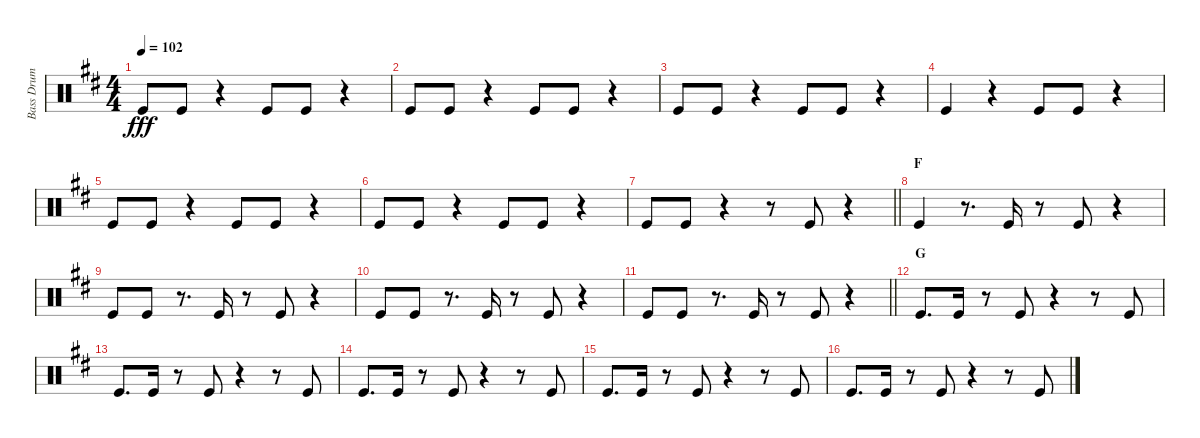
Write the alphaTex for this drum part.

\track ("Bass Drum" "Bass Drum") {instrument percussion}
\staff {score}
\articulation defaults
\ts (4 4)
\tempo 102
\clef neutral
\ks d "Kick (hit)".8{dy fff} "Kick (hit)".8
r.4 "Kick (hit)".8 "Kick (hit)".8 r.4 |
"Kick (hit)".8 "Kick (hit)".8 r.4 "Kick (hit)".8 "Kick (hit)".8 r.4 |
"Kick (hit)".8 "Kick (hit)".8 r.4 "Kick (hit)".8 "Kick (hit)".8 r.4 |
"Kick (hit)".4 r.4 "Kick (hit)".8 "Kick (hit)".8 r.4 |
"Kick (hit)".8 "Kick (hit)".8 r.4 "Kick (hit)".8 "Kick (hit)".8 r.4 |
"Kick (hit)".8 "Kick (hit)".8 r.4 "Kick (hit)".8 "Kick (hit)".8 r.4 |
\barLineRight lightlight "Kick (hit)".8 "Kick (hit)".8
r.4 r.8 "Kick (hit)".8 r.4 |
\section ("" "F")
"Kick (hit)".4 r.8{d} "Kick (hit)".16 r.8 "Kick (hit)".8 r.4 |
"Kick (hit)".8 "Kick (hit)".8 r.8{d} "Kick (hit)".16 r.8 "Kick (hit)".8 r.4 |
"Kick (hit)".8 "Kick (hit)".8 r.8{d} "Kick (hit)".16 r.8 "Kick (hit)".8 r.4 |
\barLineRight lightlight "Kick (hit)".8 "Kick (hit)".8
r.8{d} "Kick (hit)".16 r.8 "Kick (hit)".8 r.4 |
\section ("" "G")
"Kick (hit)".8{d} "Kick (hit)".16 r.8 "Kick (hit)".8 r.4 r.8 "Kick (hit)".8 |
"Kick (hit)".8{d} "Kick (hit)".16 r.8 "Kick (hit)".8 r.4 r.8 "Kick (hit)".8 |
"Kick (hit)".8{d} "Kick (hit)".16 r.8 "Kick (hit)".8 r.4 r.8 "Kick (hit)".8 |
"Kick (hit)".8{d} "Kick (hit)".16 r.8 "Kick (hit)".8 r.4 r.8 "Kick (hit)".8 |
"Kick (hit)".8{d} "Kick (hit)".16 r.8 "Kick (hit)".8 r.4 r.8 "Kick (hit)".8
